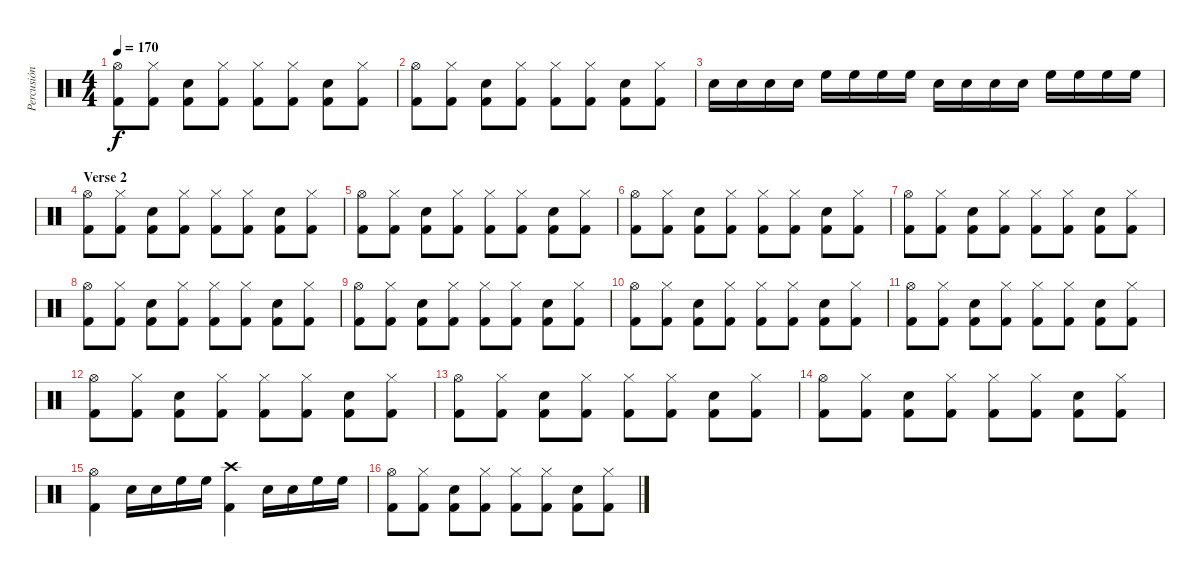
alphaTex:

\track ("Percusión" "Percusión") {instrument percussion}
\staff {score}
\articulation defaults
\ts (4 4)
\tempo 170
\clef neutral
\ks c
("Kick (hit) 2" "Hi-Hat (open)").8{dy f} ("Kick (hit) 2" "Hi-Hat (closed)").8 ("Kick (hit) 2" "Snare (hit) 2").8 ("Kick (hit) 2" "Hi-Hat (closed)").8 ("Kick (hit) 2" "Hi-Hat (closed)").8 ("Kick (hit) 2" "Hi-Hat (closed)").8 ("Kick (hit) 2" "Snare (hit) 2").8 ("Kick (hit) 2" "Hi-Hat (closed)").8 |
("Kick (hit) 2" "Hi-Hat (open)").8 ("Kick (hit) 2" "Hi-Hat (closed)").8 ("Kick (hit) 2" "Snare (hit) 2").8 ("Kick (hit) 2" "Hi-Hat (closed)").8 ("Kick (hit) 2" "Hi-Hat (closed)").8 ("Kick (hit) 2" "Hi-Hat (closed)").8 ("Kick (hit) 2" "Snare (hit) 2").8 ("Kick (hit) 2" "Hi-Hat (closed)").8 |
"Snare (hit) 2".16 "Snare (hit) 2".16 "Snare (hit) 2".16 "Snare (hit) 2".16 "High Floor Tom (hit)".16 "High Floor Tom (hit)".16 "High Floor Tom (hit)".16 "High Floor Tom (hit)".16 "Snare (hit) 2".16 "Snare (hit) 2".16 "Snare (hit) 2".16 "Snare (hit) 2".16 "High Floor Tom (hit)".16 "High Floor Tom (hit)".16 "High Floor Tom (hit)".16 "High Floor Tom (hit)".16 |
\section ("" "Verse 2")
("Kick (hit) 2" "Hi-Hat (open)").8 ("Kick (hit) 2" "Hi-Hat (closed)").8 ("Kick (hit) 2" "Snare (hit) 2").8 ("Kick (hit) 2" "Hi-Hat (closed)").8 ("Kick (hit) 2" "Hi-Hat (closed)").8 ("Kick (hit) 2" "Hi-Hat (closed)").8 ("Kick (hit) 2" "Snare (hit) 2").8 ("Kick (hit) 2" "Hi-Hat (closed)").8 |
("Kick (hit) 2" "Hi-Hat (open)").8 ("Kick (hit) 2" "Hi-Hat (closed)").8 ("Kick (hit) 2" "Snare (hit) 2").8 ("Kick (hit) 2" "Hi-Hat (closed)").8 ("Kick (hit) 2" "Hi-Hat (closed)").8 ("Kick (hit) 2" "Hi-Hat (closed)").8 ("Kick (hit) 2" "Snare (hit) 2").8 ("Kick (hit) 2" "Hi-Hat (closed)").8 |
("Kick (hit) 2" "Hi-Hat (open)").8 ("Kick (hit) 2" "Hi-Hat (closed)").8 ("Kick (hit) 2" "Snare (hit) 2").8 ("Kick (hit) 2" "Hi-Hat (closed)").8 ("Kick (hit) 2" "Hi-Hat (closed)").8 ("Kick (hit) 2" "Hi-Hat (closed)").8 ("Kick (hit) 2" "Snare (hit) 2").8 ("Kick (hit) 2" "Hi-Hat (closed)").8 |
("Kick (hit) 2" "Hi-Hat (open)").8 ("Kick (hit) 2" "Hi-Hat (closed)").8 ("Kick (hit) 2" "Snare (hit) 2").8 ("Kick (hit) 2" "Hi-Hat (closed)").8 ("Kick (hit) 2" "Hi-Hat (closed)").8 ("Kick (hit) 2" "Hi-Hat (closed)").8 ("Kick (hit) 2" "Snare (hit) 2").8 ("Kick (hit) 2" "Hi-Hat (closed)").8 |
("Kick (hit) 2" "Hi-Hat (open)").8 ("Kick (hit) 2" "Hi-Hat (closed)").8 ("Kick (hit) 2" "Snare (hit) 2").8 ("Kick (hit) 2" "Hi-Hat (closed)").8 ("Kick (hit) 2" "Hi-Hat (closed)").8 ("Kick (hit) 2" "Hi-Hat (closed)").8 ("Kick (hit) 2" "Snare (hit) 2").8 ("Kick (hit) 2" "Hi-Hat (closed)").8 |
("Kick (hit) 2" "Hi-Hat (open)").8 ("Kick (hit) 2" "Hi-Hat (closed)").8 ("Kick (hit) 2" "Snare (hit) 2").8 ("Kick (hit) 2" "Hi-Hat (closed)").8 ("Kick (hit) 2" "Hi-Hat (closed)").8 ("Kick (hit) 2" "Hi-Hat (closed)").8 ("Kick (hit) 2" "Snare (hit) 2").8 ("Kick (hit) 2" "Hi-Hat (closed)").8 |
("Kick (hit) 2" "Hi-Hat (open)").8 ("Kick (hit) 2" "Hi-Hat (closed)").8 ("Kick (hit) 2" "Snare (hit) 2").8 ("Kick (hit) 2" "Hi-Hat (closed)").8 ("Kick (hit) 2" "Hi-Hat (closed)").8 ("Kick (hit) 2" "Hi-Hat (closed)").8 ("Kick (hit) 2" "Snare (hit) 2").8 ("Kick (hit) 2" "Hi-Hat (closed)").8 |
("Kick (hit) 2" "Hi-Hat (open)").8 ("Kick (hit) 2" "Hi-Hat (closed)").8 ("Kick (hit) 2" "Snare (hit) 2").8 ("Kick (hit) 2" "Hi-Hat (closed)").8 ("Kick (hit) 2" "Hi-Hat (closed)").8 ("Kick (hit) 2" "Hi-Hat (closed)").8 ("Kick (hit) 2" "Snare (hit) 2").8 ("Kick (hit) 2" "Hi-Hat (closed)").8 |
("Kick (hit) 2" "Hi-Hat (open)").8 ("Kick (hit) 2" "Hi-Hat (closed)").8 ("Kick (hit) 2" "Snare (hit) 2").8 ("Kick (hit) 2" "Hi-Hat (closed)").8 ("Kick (hit) 2" "Hi-Hat (closed)").8 ("Kick (hit) 2" "Hi-Hat (closed)").8 ("Kick (hit) 2" "Snare (hit) 2").8 ("Kick (hit) 2" "Hi-Hat (closed)").8 |
("Kick (hit) 2" "Hi-Hat (open)").8 ("Kick (hit) 2" "Hi-Hat (closed)").8 ("Kick (hit) 2" "Snare (hit) 2").8 ("Kick (hit) 2" "Hi-Hat (closed)").8 ("Kick (hit) 2" "Hi-Hat (closed)").8 ("Kick (hit) 2" "Hi-Hat (closed)").8 ("Kick (hit) 2" "Snare (hit) 2").8 ("Kick (hit) 2" "Hi-Hat (closed)").8 |
("Kick (hit) 2" "Hi-Hat (open)").8 ("Kick (hit) 2" "Hi-Hat (closed)").8 ("Kick (hit) 2" "Snare (hit) 2").8 ("Kick (hit) 2" "Hi-Hat (closed)").8 ("Kick (hit) 2" "Hi-Hat (closed)").8 ("Kick (hit) 2" "Hi-Hat (closed)").8 ("Kick (hit) 2" "Snare (hit) 2").8 ("Kick (hit) 2" "Hi-Hat (closed)").8 |
("Kick (hit) 2" "Hi-Hat (open)").4 "Snare (hit) 2".16 "Snare (hit) 2".16 "High Floor Tom (hit)".16 "High Floor Tom (hit)".16 ("Kick (hit) 2" "Crash high (hit)").4 "Snare (hit) 2".16 "Snare (hit) 2".16 "High Floor Tom (hit)".16 "High Floor Tom (hit)".16 |
("Kick (hit) 2" "Hi-Hat (open)").8 ("Kick (hit) 2" "Hi-Hat (closed)").8 ("Kick (hit) 2" "Snare (hit) 2").8 ("Kick (hit) 2" "Hi-Hat (closed)").8 ("Kick (hit) 2" "Hi-Hat (closed)").8 ("Kick (hit) 2" "Hi-Hat (closed)").8 ("Kick (hit) 2" "Snare (hit) 2").8 ("Kick (hit) 2" "Hi-Hat (closed)").8
